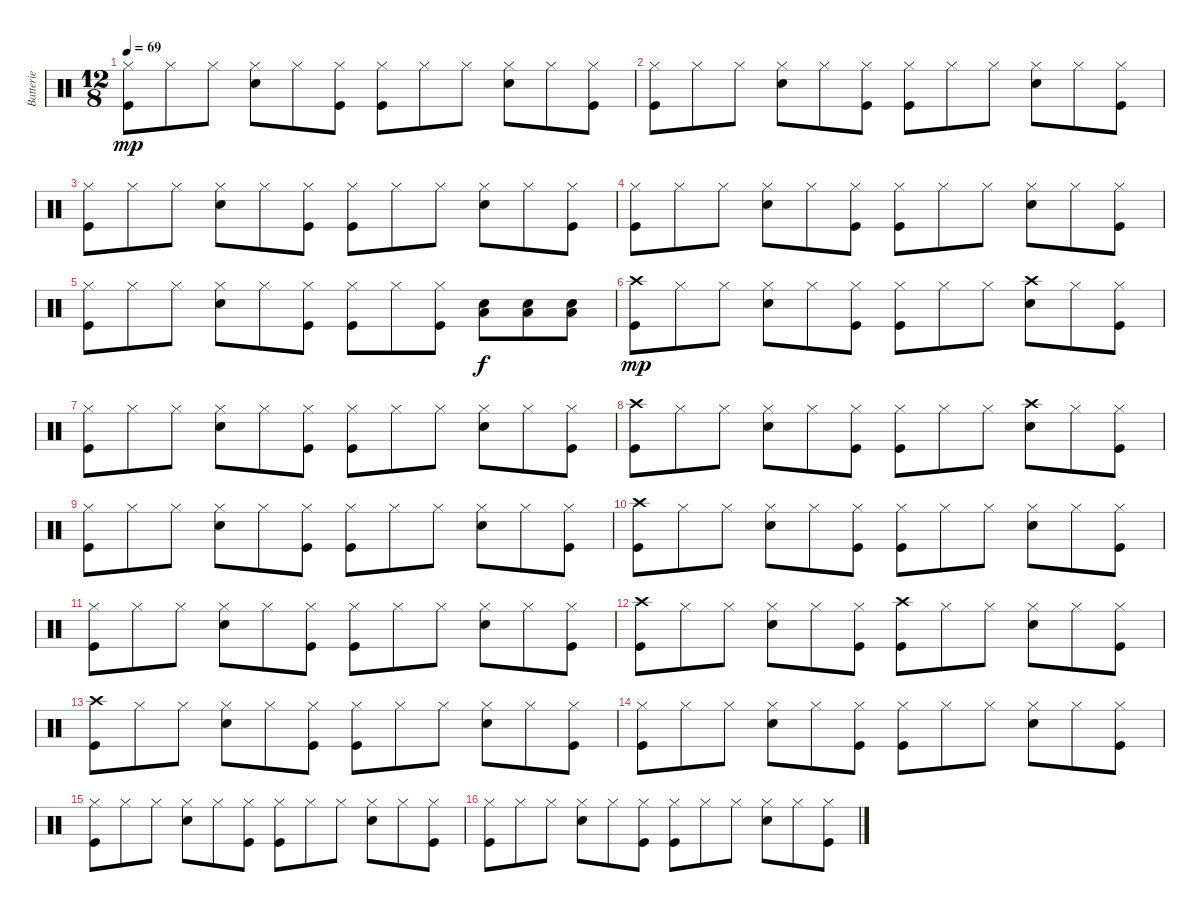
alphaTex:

\track ("Batterie" "Batterie") {instrument percussion}
\staff {score}
\articulation defaults
\ts (12 8)
\tempo 69
\clef neutral
\ks c
("Hi-Hat (closed)" "Kick (hit)").8{dy mp} "Hi-Hat (closed)".8 "Hi-Hat (closed)".8 ("Hi-Hat (closed)" "Snare (hit) 2").8 "Hi-Hat (closed)".8 ("Hi-Hat (closed)" "Kick (hit)").8 ("Hi-Hat (closed)" "Kick (hit)").8 "Hi-Hat (closed)".8 "Hi-Hat (closed)".8 ("Hi-Hat (closed)" "Snare (hit) 2").8 "Hi-Hat (closed)".8 ("Hi-Hat (closed)" "Kick (hit)").8 |
("Hi-Hat (closed)" "Kick (hit)").8 "Hi-Hat (closed)".8 "Hi-Hat (closed)".8 ("Hi-Hat (closed)" "Snare (hit) 2").8 "Hi-Hat (closed)".8 ("Hi-Hat (closed)" "Kick (hit)").8 ("Hi-Hat (closed)" "Kick (hit)").8 "Hi-Hat (closed)".8 "Hi-Hat (closed)".8 ("Hi-Hat (closed)" "Snare (hit) 2").8 "Hi-Hat (closed)".8 ("Hi-Hat (closed)" "Kick (hit)").8 |
("Hi-Hat (closed)" "Kick (hit)").8 "Hi-Hat (closed)".8 "Hi-Hat (closed)".8 ("Hi-Hat (closed)" "Snare (hit) 2").8 "Hi-Hat (closed)".8 ("Hi-Hat (closed)" "Kick (hit)").8 ("Hi-Hat (closed)" "Kick (hit)").8 "Hi-Hat (closed)".8 "Hi-Hat (closed)".8 ("Hi-Hat (closed)" "Snare (hit) 2").8 "Hi-Hat (closed)".8 ("Hi-Hat (closed)" "Kick (hit)").8 |
("Hi-Hat (closed)" "Kick (hit)").8 "Hi-Hat (closed)".8 "Hi-Hat (closed)".8 ("Hi-Hat (closed)" "Snare (hit) 2").8 "Hi-Hat (closed)".8 ("Hi-Hat (closed)" "Kick (hit)").8 ("Hi-Hat (closed)" "Kick (hit)").8 "Hi-Hat (closed)".8 "Hi-Hat (closed)".8 ("Hi-Hat (closed)" "Snare (hit) 2").8 "Hi-Hat (closed)".8 ("Hi-Hat (closed)" "Kick (hit)").8 |
("Hi-Hat (closed)" "Kick (hit)").8 "Hi-Hat (closed)".8 "Hi-Hat (closed)".8 ("Hi-Hat (closed)" "Snare (hit) 2").8 "Hi-Hat (closed)".8 ("Hi-Hat (closed)" "Kick (hit)").8 ("Hi-Hat (closed)" "Kick (hit)").8 "Hi-Hat (closed)".8 ("Hi-Hat (closed)" "Kick (hit)").8 ("Snare (hit) 2" "Low Tom (hit)").8{dy f} ("Snare (hit) 2" "Low Tom (hit)").8 ("Snare (hit) 2" "Low Tom (hit)").8 |
("Crash high (hit)" "Kick (hit)").8{dy mp} "Hi-Hat (closed)".8 "Hi-Hat (closed)".8 ("Hi-Hat (closed)" "Snare (hit) 2").8 "Hi-Hat (closed)".8 ("Hi-Hat (closed)" "Kick (hit)").8 ("Hi-Hat (closed)" "Kick (hit)").8 "Hi-Hat (closed)".8 "Hi-Hat (closed)".8 ("Crash high (hit)" "Snare (hit) 2").8 "Hi-Hat (closed)".8 ("Hi-Hat (closed)" "Kick (hit)").8 |
("Hi-Hat (closed)" "Kick (hit)").8 "Hi-Hat (closed)".8 "Hi-Hat (closed)".8 ("Hi-Hat (closed)" "Snare (hit) 2").8 "Hi-Hat (closed)".8 ("Hi-Hat (closed)" "Kick (hit)").8 ("Hi-Hat (closed)" "Kick (hit)").8 "Hi-Hat (closed)".8 "Hi-Hat (closed)".8 ("Hi-Hat (closed)" "Snare (hit) 2").8 "Hi-Hat (closed)".8 ("Hi-Hat (closed)" "Kick (hit)").8 |
("Crash high (hit)" "Kick (hit)").8 "Hi-Hat (closed)".8 "Hi-Hat (closed)".8 ("Hi-Hat (closed)" "Snare (hit) 2").8 "Hi-Hat (closed)".8 ("Hi-Hat (closed)" "Kick (hit)").8 ("Hi-Hat (closed)" "Kick (hit)").8 "Hi-Hat (closed)".8 "Hi-Hat (closed)".8 ("Crash high (hit)" "Snare (hit) 2").8 "Hi-Hat (closed)".8 ("Hi-Hat (closed)" "Kick (hit)").8 |
("Hi-Hat (closed)" "Kick (hit)").8 "Hi-Hat (closed)".8 "Hi-Hat (closed)".8 ("Hi-Hat (closed)" "Snare (hit) 2").8 "Hi-Hat (closed)".8 ("Hi-Hat (closed)" "Kick (hit)").8 ("Hi-Hat (closed)" "Kick (hit)").8 "Hi-Hat (closed)".8 "Hi-Hat (closed)".8 ("Hi-Hat (closed)" "Snare (hit) 2").8 "Hi-Hat (closed)".8 ("Hi-Hat (closed)" "Kick (hit)").8 |
("Crash high (hit)" "Kick (hit)").8 "Hi-Hat (closed)".8 "Hi-Hat (closed)".8 ("Hi-Hat (closed)" "Snare (hit) 2").8 "Hi-Hat (closed)".8 ("Hi-Hat (closed)" "Kick (hit)").8 ("Hi-Hat (closed)" "Kick (hit)").8 "Hi-Hat (closed)".8 "Hi-Hat (closed)".8 ("Hi-Hat (closed)" "Snare (hit) 2").8 "Hi-Hat (closed)".8 ("Hi-Hat (closed)" "Kick (hit)").8 |
("Hi-Hat (closed)" "Kick (hit)").8 "Hi-Hat (closed)".8 "Hi-Hat (closed)".8 ("Hi-Hat (closed)" "Snare (hit) 2").8 "Hi-Hat (closed)".8 ("Hi-Hat (closed)" "Kick (hit)").8 ("Hi-Hat (closed)" "Kick (hit)").8 "Hi-Hat (closed)".8 "Hi-Hat (closed)".8 ("Hi-Hat (closed)" "Snare (hit) 2").8 "Hi-Hat (closed)".8 ("Hi-Hat (closed)" "Kick (hit)").8 |
("Crash high (hit)" "Kick (hit)").8 "Hi-Hat (closed)".8 "Hi-Hat (closed)".8 ("Hi-Hat (closed)" "Snare (hit) 2").8 "Hi-Hat (closed)".8 ("Hi-Hat (closed)" "Kick (hit)").8 ("Crash high (hit)" "Kick (hit)").8 "Hi-Hat (closed)".8 "Hi-Hat (closed)".8 ("Hi-Hat (closed)" "Snare (hit) 2").8 "Hi-Hat (closed)".8 ("Hi-Hat (closed)" "Kick (hit)").8 |
("Crash high (hit)" "Kick (hit)").8 "Hi-Hat (closed)".8 "Hi-Hat (closed)".8 ("Hi-Hat (closed)" "Snare (hit) 2").8 "Hi-Hat (closed)".8 ("Hi-Hat (closed)" "Kick (hit)").8 ("Hi-Hat (closed)" "Kick (hit)").8 "Hi-Hat (closed)".8 "Hi-Hat (closed)".8 ("Hi-Hat (closed)" "Snare (hit) 2").8 "Hi-Hat (closed)".8 ("Hi-Hat (closed)" "Kick (hit)").8 |
("Hi-Hat (closed)" "Kick (hit)").8 "Hi-Hat (closed)".8 "Hi-Hat (closed)".8 ("Hi-Hat (closed)" "Snare (hit) 2").8 "Hi-Hat (closed)".8 ("Hi-Hat (closed)" "Kick (hit)").8 ("Hi-Hat (closed)" "Kick (hit)").8 "Hi-Hat (closed)".8 "Hi-Hat (closed)".8 ("Hi-Hat (closed)" "Snare (hit) 2").8 "Hi-Hat (closed)".8 ("Hi-Hat (closed)" "Kick (hit)").8 |
("Hi-Hat (closed)" "Kick (hit)").8 "Hi-Hat (closed)".8 "Hi-Hat (closed)".8 ("Hi-Hat (closed)" "Snare (hit) 2").8 "Hi-Hat (closed)".8 ("Hi-Hat (closed)" "Kick (hit)").8 ("Hi-Hat (closed)" "Kick (hit)").8 "Hi-Hat (closed)".8 "Hi-Hat (closed)".8 ("Hi-Hat (closed)" "Snare (hit) 2").8 "Hi-Hat (closed)".8 ("Hi-Hat (closed)" "Kick (hit)").8 |
("Hi-Hat (closed)" "Kick (hit)").8 "Hi-Hat (closed)".8 "Hi-Hat (closed)".8 ("Hi-Hat (closed)" "Snare (hit) 2").8 "Hi-Hat (closed)".8 ("Hi-Hat (closed)" "Kick (hit)").8 ("Hi-Hat (closed)" "Kick (hit)").8 "Hi-Hat (closed)".8 "Hi-Hat (closed)".8 ("Hi-Hat (closed)" "Snare (hit) 2").8 "Hi-Hat (closed)".8 ("Hi-Hat (closed)" "Kick (hit)").8
